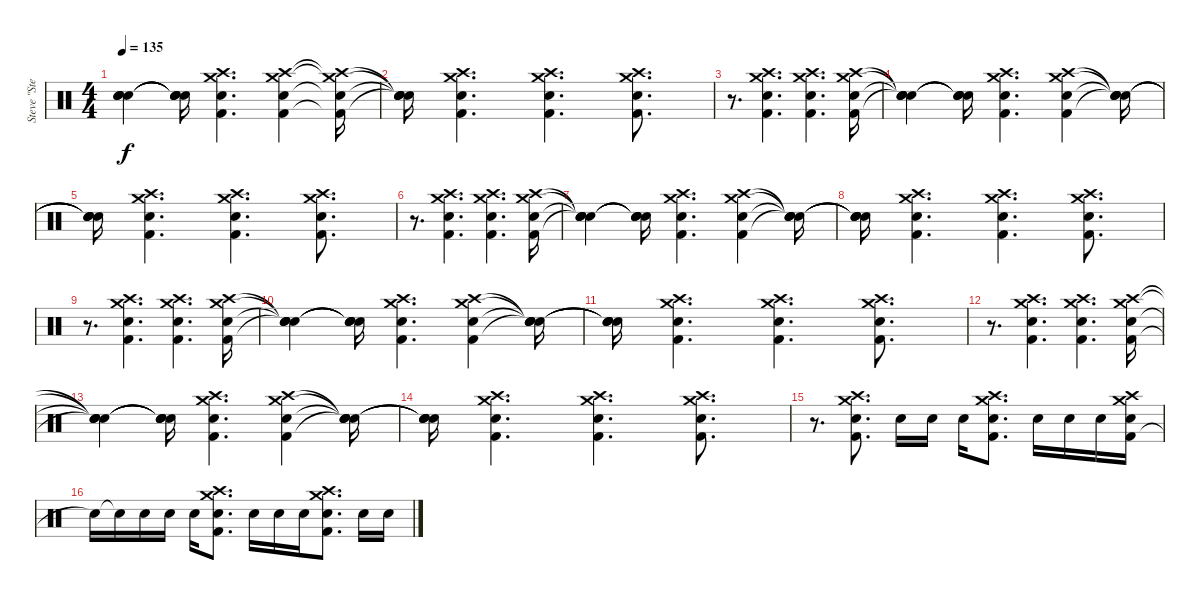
\track ("Steve \"Stevo 32\" Jocz" "Steve \"Ste") {instrument percussion}
\staff {score}
\articulation defaults
\ts (4 4)
\tempo 135
\clef neutral
\ks c
("Snare (hit)"{t} "Snare (hit)"{t} "Snare (hit)"{t} "Snare (hit)"{t}).4{dy f} ("Snare (hit)"{t} "Snare (hit)"{t} "Snare (hit)"{t} "Snare (hit)"{t}).16 ("Kick (hit) 2" "Snare (hit) 2" "Crash high (hit)" "Crash medium (hit)").4{d} ("Kick (hit) 2" "Snare (hit) 2" "Crash high (hit)" "Crash medium (hit)").4 ("Kick (hit) 2"{t} "Snare (hit) 2"{t} "Crash high (hit)"{t} "Crash medium (hit)"{t}).16 |
("Snare (hit)"{t} "Snare (hit)"{t} "Snare (hit)"{t} "Snare (hit)"{t}).16 ("Kick (hit) 2" "Snare (hit) 2" "Crash high (hit)" "Crash medium (hit)").4{d} ("Kick (hit) 2" "Snare (hit) 2" "Crash high (hit)" "Crash medium (hit)").4{d} ("Kick (hit) 2" "Snare (hit) 2" "Crash high (hit)" "Crash medium (hit)").8{d} |
r.8{d} ("Kick (hit) 2" "Snare (hit) 2" "Crash high (hit)" "Crash medium (hit)").4{d} ("Kick (hit) 2" "Snare (hit) 2" "Crash high (hit)" "Crash medium (hit)").4{d} ("Kick (hit) 2" "Snare (hit) 2" "Crash high (hit)" "Crash medium (hit)").16 |
("Snare (hit)"{t} "Snare (hit)"{t} "Snare (hit)"{t} "Snare (hit)"{t}).4 ("Snare (hit)"{t} "Snare (hit)"{t} "Snare (hit)"{t} "Snare (hit)"{t}).16 ("Kick (hit) 2" "Snare (hit) 2" "Crash high (hit)" "Crash medium (hit)").4{d} ("Kick (hit) 2" "Snare (hit) 2" "Crash high (hit)" "Crash medium (hit)").4 ("Snare (hit)"{t} "Snare (hit)"{t} "Snare (hit)"{t} "Snare (hit)"{t}).16 |
("Snare (hit)"{t} "Snare (hit)"{t} "Snare (hit)"{t} "Snare (hit)"{t}).16 ("Kick (hit) 2" "Snare (hit) 2" "Crash high (hit)" "Crash medium (hit)").4{d} ("Kick (hit) 2" "Snare (hit) 2" "Crash high (hit)" "Crash medium (hit)").4{d} ("Kick (hit) 2" "Snare (hit) 2" "Crash high (hit)" "Crash medium (hit)").8{d} |
r.8{d} ("Kick (hit) 2" "Snare (hit) 2" "Crash high (hit)" "Crash medium (hit)").4{d} ("Kick (hit) 2" "Snare (hit) 2" "Crash high (hit)" "Crash medium (hit)").4{d} ("Kick (hit) 2" "Snare (hit) 2" "Crash high (hit)" "Crash medium (hit)").16 |
("Snare (hit)"{t} "Snare (hit)"{t} "Snare (hit)"{t} "Snare (hit)"{t}).4 ("Snare (hit)"{t} "Snare (hit)"{t} "Snare (hit)"{t} "Snare (hit)"{t}).16 ("Kick (hit) 2" "Snare (hit) 2" "Crash high (hit)" "Crash medium (hit)").4{d} ("Kick (hit) 2" "Snare (hit) 2" "Crash high (hit)" "Crash medium (hit)").4 ("Snare (hit)"{t} "Snare (hit)"{t} "Snare (hit)"{t} "Snare (hit)"{t}).16 |
("Snare (hit)"{t} "Snare (hit)"{t} "Snare (hit)"{t} "Snare (hit)"{t}).16 ("Kick (hit) 2" "Snare (hit) 2" "Crash high (hit)" "Crash medium (hit)").4{d} ("Kick (hit) 2" "Snare (hit) 2" "Crash high (hit)" "Crash medium (hit)").4{d} ("Kick (hit) 2" "Snare (hit) 2" "Crash high (hit)" "Crash medium (hit)").8{d} |
r.8{d} ("Kick (hit) 2" "Snare (hit) 2" "Crash high (hit)" "Crash medium (hit)").4{d} ("Kick (hit) 2" "Snare (hit) 2" "Crash high (hit)" "Crash medium (hit)").4{d} ("Kick (hit) 2" "Snare (hit) 2" "Crash high (hit)" "Crash medium (hit)").16 |
("Snare (hit)"{t} "Snare (hit)"{t} "Snare (hit)"{t} "Snare (hit)"{t}).4 ("Snare (hit)"{t} "Snare (hit)"{t} "Snare (hit)"{t} "Snare (hit)"{t}).16 ("Kick (hit) 2" "Snare (hit) 2" "Crash high (hit)" "Crash medium (hit)").4{d} ("Kick (hit) 2" "Snare (hit) 2" "Crash high (hit)" "Crash medium (hit)").4 ("Snare (hit)"{t} "Snare (hit)"{t} "Snare (hit)"{t} "Snare (hit)"{t}).16 |
("Snare (hit)"{t} "Snare (hit)"{t} "Snare (hit)"{t} "Snare (hit)"{t}).16 ("Kick (hit) 2" "Snare (hit) 2" "Crash high (hit)" "Crash medium (hit)").4{d} ("Kick (hit) 2" "Snare (hit) 2" "Crash high (hit)" "Crash medium (hit)").4{d} ("Kick (hit) 2" "Snare (hit) 2" "Crash high (hit)" "Crash medium (hit)").8{d} |
r.8{d} ("Kick (hit) 2" "Snare (hit) 2" "Crash high (hit)" "Crash medium (hit)").4{d} ("Kick (hit) 2" "Snare (hit) 2" "Crash high (hit)" "Crash medium (hit)").4{d} ("Kick (hit) 2" "Snare (hit) 2" "Crash high (hit)" "Crash medium (hit)").16 |
("Snare (hit)"{t} "Snare (hit)"{t} "Snare (hit)"{t} "Snare (hit)"{t}).4 ("Snare (hit)"{t} "Snare (hit)"{t} "Snare (hit)"{t} "Snare (hit)"{t}).16 ("Kick (hit) 2" "Snare (hit) 2" "Crash high (hit)" "Crash medium (hit)").4{d} ("Kick (hit) 2" "Snare (hit) 2" "Crash high (hit)" "Crash medium (hit)").4 ("Snare (hit)"{t} "Snare (hit)"{t} "Snare (hit)"{t} "Snare (hit)"{t}).16 |
("Snare (hit)"{t} "Snare (hit)"{t} "Snare (hit)"{t} "Snare (hit)"{t}).16 ("Kick (hit) 2" "Snare (hit) 2" "Crash high (hit)" "Crash medium (hit)").4{d} ("Kick (hit) 2" "Snare (hit) 2" "Crash high (hit)" "Crash medium (hit)").4{d} ("Kick (hit) 2" "Snare (hit) 2" "Crash high (hit)" "Crash medium (hit)").8{d} |
r.8{d} ("Kick (hit) 2" "Snare (hit) 2" "Crash high (hit)" "Crash medium (hit)").8{d} "Electric Snare (hit)".16 "Electric Snare (hit)".16 "Electric Snare (hit)".16 ("Kick (hit) 2" "Snare (hit) 2" "Crash high (hit)" "Crash medium (hit)").8{d} "Electric Snare (hit)".16 "Electric Snare (hit)".16 "Electric Snare (hit)".16 ("Kick (hit) 2" "Snare (hit) 2" "Crash high (hit)" "Crash medium (hit)").16 |
"Electric Snare (hit)"{t}.16 "Electric Snare (hit)"{t}.16 "Electric Snare (hit)".16 "Electric Snare (hit)".16 "Electric Snare (hit)".16 ("Kick (hit) 2" "Snare (hit) 2" "Crash high (hit)" "Crash medium (hit)").8{d} "Electric Snare (hit)".16 "Electric Snare (hit)".16 "Electric Snare (hit)".16 ("Kick (hit) 2" "Snare (hit) 2" "Crash high (hit)" "Crash medium (hit)").8{d} "Electric Snare (hit)".16 "Electric Snare (hit)".16
